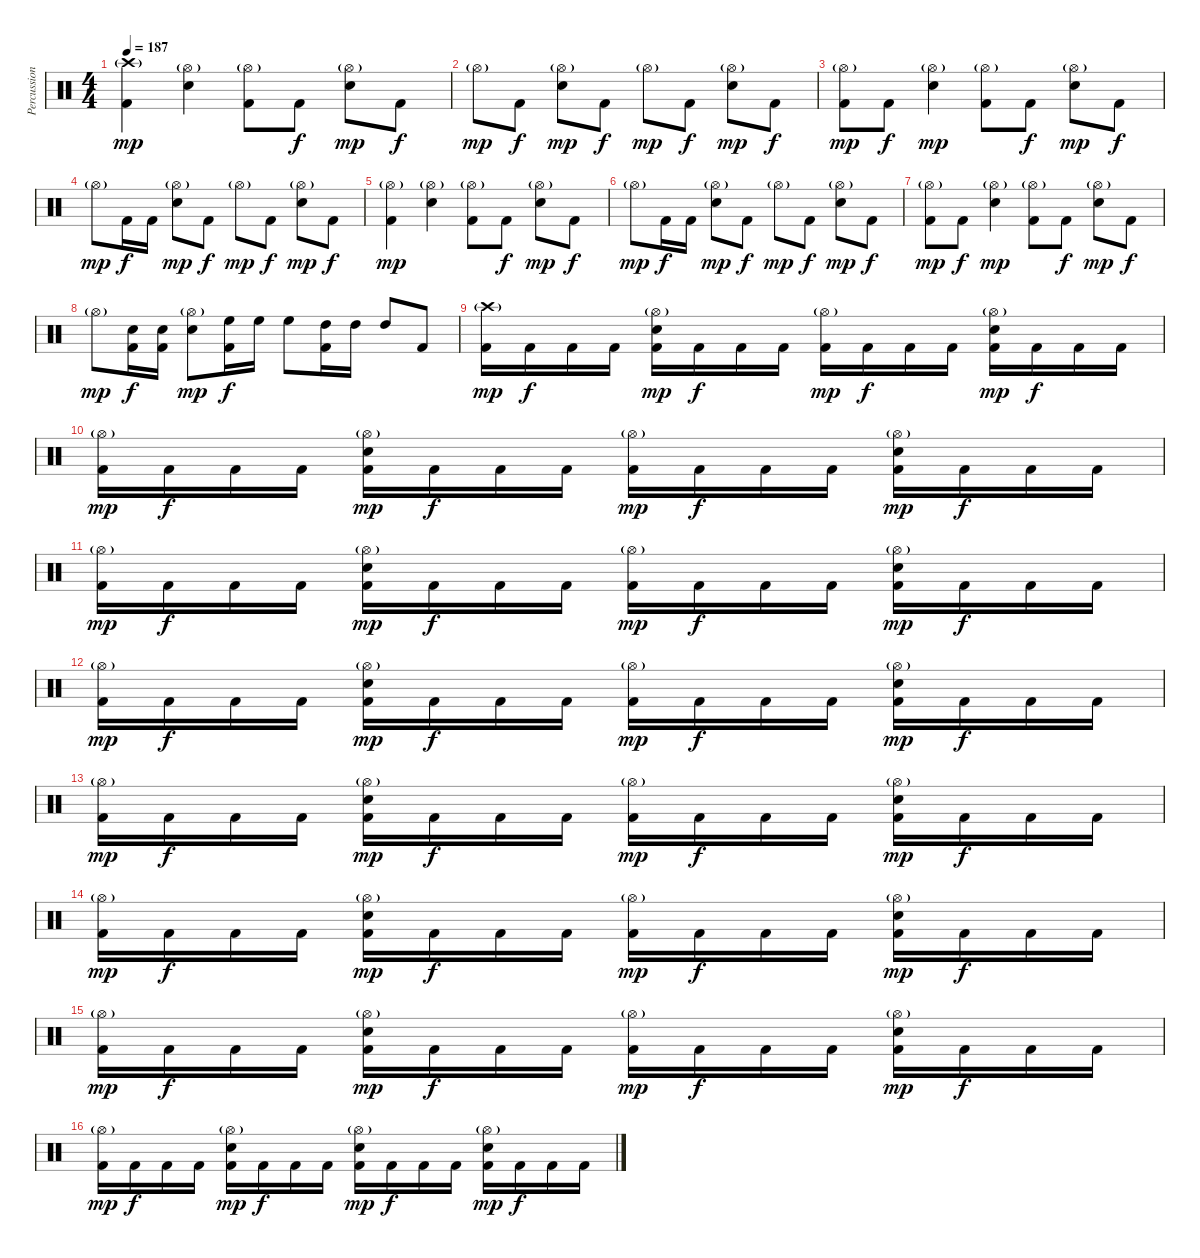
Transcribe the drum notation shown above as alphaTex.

\track ("Percussion" "Percussion") {instrument percussion}
\staff {score}
\articulation defaults
\ts (4 4)
\tempo 187
\clef neutral
\ks c
("Kick (hit) 2" "Crash high (hit)"{g}).4{dy mp} ("Snare (hit) 2" "Hi-Hat (open)"{g}).4 ("Kick (hit) 2" "Hi-Hat (open)"{g}).8 "Kick (hit) 2".8{dy f} ("Snare (hit) 2" "Hi-Hat (open)"{g}).8{dy mp} "Kick (hit) 2".8{dy f} |
"Hi-Hat (open)"{g}.8{dy mp} "Kick (hit) 2".8{dy f} ("Snare (hit) 2" "Hi-Hat (open)"{g}).8{dy mp} "Kick (hit) 2".8{dy f} "Hi-Hat (open)"{g}.8{dy mp} "Kick (hit) 2".8{dy f} ("Snare (hit) 2" "Hi-Hat (open)"{g}).8{dy mp} "Kick (hit) 2".8{dy f} |
("Kick (hit) 2" "Hi-Hat (open)"{g}).8{dy mp} "Kick (hit) 2".8{dy f} ("Snare (hit) 2" "Hi-Hat (open)"{g}).4{dy mp} ("Kick (hit) 2" "Hi-Hat (open)"{g}).8 "Kick (hit) 2".8{dy f} ("Snare (hit) 2" "Hi-Hat (open)"{g}).8{dy mp} "Kick (hit) 2".8{dy f} |
"Hi-Hat (open)"{g}.8{dy mp} "Kick (hit) 2".16{dy f} "Kick (hit) 2".16 ("Snare (hit) 2" "Hi-Hat (open)"{g}).8{dy mp} "Kick (hit) 2".8{dy f} "Hi-Hat (open)"{g}.8{dy mp} "Kick (hit) 2".8{dy f} ("Snare (hit) 2" "Hi-Hat (open)"{g}).8{dy mp} "Kick (hit) 2".8{dy f} |
("Kick (hit) 2" "Hi-Hat (open)"{g}).4{dy mp} ("Snare (hit) 2" "Hi-Hat (open)"{g}).4 ("Kick (hit) 2" "Hi-Hat (open)"{g}).8 "Kick (hit) 2".8{dy f} ("Snare (hit) 2" "Hi-Hat (open)"{g}).8{dy mp} "Kick (hit) 2".8{dy f} |
"Hi-Hat (open)"{g}.8{dy mp} "Kick (hit) 2".16{dy f} "Kick (hit) 2".16 ("Snare (hit) 2" "Hi-Hat (open)"{g}).8{dy mp} "Kick (hit) 2".8{dy f} "Hi-Hat (open)"{g}.8{dy mp} "Kick (hit) 2".8{dy f} ("Snare (hit) 2" "Hi-Hat (open)"{g}).8{dy mp} "Kick (hit) 2".8{dy f} |
("Kick (hit) 2" "Hi-Hat (open)"{g}).8{dy mp} "Kick (hit) 2".8{dy f} ("Snare (hit) 2" "Hi-Hat (open)"{g}).4{dy mp} ("Kick (hit) 2" "Hi-Hat (open)"{g}).8 "Kick (hit) 2".8{dy f} ("Snare (hit) 2" "Hi-Hat (open)"{g}).8{dy mp} "Kick (hit) 2".8{dy f} |
"Hi-Hat (open)"{g}.8{dy mp} ("Snare (hit) 2" "Kick (hit) 2").16{dy f} ("Kick (hit) 2" "Snare (hit) 2").16 ("Snare (hit) 2" "Hi-Hat (open)"{g}).8{dy mp} ("Kick (hit) 2" "High Floor Tom (hit)").16{dy f} "High Floor Tom (hit)".16 "High Floor Tom (hit)".8 ("Kick (hit) 2" "High Tom (hit)").16 "High Tom (hit)".16 "High Tom (hit)".8 "Kick (hit) 2".8 |
("Kick (hit) 2" "Crash high (hit)"{g}).16{dy mp} "Kick (hit) 2".16{dy f} "Kick (hit) 2".16 "Kick (hit) 2".16 ("Kick (hit) 2" "Snare (hit) 2" "Hi-Hat (open)"{g}).16{dy mp} "Kick (hit) 2".16{dy f} "Kick (hit) 2".16 "Kick (hit) 2".16 ("Kick (hit) 2" "Hi-Hat (open)"{g}).16{dy mp} "Kick (hit) 2".16{dy f} "Kick (hit) 2".16 "Kick (hit) 2".16 ("Kick (hit) 2" "Snare (hit) 2" "Hi-Hat (open)"{g}).16{dy mp} "Kick (hit) 2".16{dy f} "Kick (hit) 2".16 "Kick (hit) 2".16 |
("Kick (hit) 2" "Hi-Hat (open)"{g}).16{dy mp} "Kick (hit) 2".16{dy f} "Kick (hit) 2".16 "Kick (hit) 2".16 ("Kick (hit) 2" "Snare (hit) 2" "Hi-Hat (open)"{g}).16{dy mp} "Kick (hit) 2".16{dy f} "Kick (hit) 2".16 "Kick (hit) 2".16 ("Kick (hit) 2" "Hi-Hat (open)"{g}).16{dy mp} "Kick (hit) 2".16{dy f} "Kick (hit) 2".16 "Kick (hit) 2".16 ("Kick (hit) 2" "Snare (hit) 2" "Hi-Hat (open)"{g}).16{dy mp} "Kick (hit) 2".16{dy f} "Kick (hit) 2".16 "Kick (hit) 2".16 |
("Kick (hit) 2" "Hi-Hat (open)"{g}).16{dy mp} "Kick (hit) 2".16{dy f} "Kick (hit) 2".16 "Kick (hit) 2".16 ("Kick (hit) 2" "Snare (hit) 2" "Hi-Hat (open)"{g}).16{dy mp} "Kick (hit) 2".16{dy f} "Kick (hit) 2".16 "Kick (hit) 2".16 ("Kick (hit) 2" "Hi-Hat (open)"{g}).16{dy mp} "Kick (hit) 2".16{dy f} "Kick (hit) 2".16 "Kick (hit) 2".16 ("Kick (hit) 2" "Snare (hit) 2" "Hi-Hat (open)"{g}).16{dy mp} "Kick (hit) 2".16{dy f} "Kick (hit) 2".16 "Kick (hit) 2".16 |
("Kick (hit) 2" "Hi-Hat (open)"{g}).16{dy mp} "Kick (hit) 2".16{dy f} "Kick (hit) 2".16 "Kick (hit) 2".16 ("Kick (hit) 2" "Snare (hit) 2" "Hi-Hat (open)"{g}).16{dy mp} "Kick (hit) 2".16{dy f} "Kick (hit) 2".16 "Kick (hit) 2".16 ("Kick (hit) 2" "Hi-Hat (open)"{g}).16{dy mp} "Kick (hit) 2".16{dy f} "Kick (hit) 2".16 "Kick (hit) 2".16 ("Kick (hit) 2" "Snare (hit) 2" "Hi-Hat (open)"{g}).16{dy mp} "Kick (hit) 2".16{dy f} "Kick (hit) 2".16 "Kick (hit) 2".16 |
("Kick (hit) 2" "Hi-Hat (open)"{g}).16{dy mp} "Kick (hit) 2".16{dy f} "Kick (hit) 2".16 "Kick (hit) 2".16 ("Kick (hit) 2" "Snare (hit) 2" "Hi-Hat (open)"{g}).16{dy mp} "Kick (hit) 2".16{dy f} "Kick (hit) 2".16 "Kick (hit) 2".16 ("Kick (hit) 2" "Hi-Hat (open)"{g}).16{dy mp} "Kick (hit) 2".16{dy f} "Kick (hit) 2".16 "Kick (hit) 2".16 ("Kick (hit) 2" "Snare (hit) 2" "Hi-Hat (open)"{g}).16{dy mp} "Kick (hit) 2".16{dy f} "Kick (hit) 2".16 "Kick (hit) 2".16 |
("Kick (hit) 2" "Hi-Hat (open)"{g}).16{dy mp} "Kick (hit) 2".16{dy f} "Kick (hit) 2".16 "Kick (hit) 2".16 ("Kick (hit) 2" "Snare (hit) 2" "Hi-Hat (open)"{g}).16{dy mp} "Kick (hit) 2".16{dy f} "Kick (hit) 2".16 "Kick (hit) 2".16 ("Kick (hit) 2" "Hi-Hat (open)"{g}).16{dy mp} "Kick (hit) 2".16{dy f} "Kick (hit) 2".16 "Kick (hit) 2".16 ("Kick (hit) 2" "Snare (hit) 2" "Hi-Hat (open)"{g}).16{dy mp} "Kick (hit) 2".16{dy f} "Kick (hit) 2".16 "Kick (hit) 2".16 |
("Kick (hit) 2" "Hi-Hat (open)"{g}).16{dy mp} "Kick (hit) 2".16{dy f} "Kick (hit) 2".16 "Kick (hit) 2".16 ("Kick (hit) 2" "Snare (hit) 2" "Hi-Hat (open)"{g}).16{dy mp} "Kick (hit) 2".16{dy f} "Kick (hit) 2".16 "Kick (hit) 2".16 ("Kick (hit) 2" "Hi-Hat (open)"{g}).16{dy mp} "Kick (hit) 2".16{dy f} "Kick (hit) 2".16 "Kick (hit) 2".16 ("Kick (hit) 2" "Snare (hit) 2" "Hi-Hat (open)"{g}).16{dy mp} "Kick (hit) 2".16{dy f} "Kick (hit) 2".16 "Kick (hit) 2".16 |
("Kick (hit) 2" "Hi-Hat (open)"{g}).16{dy mp} "Kick (hit) 2".16{dy f} "Kick (hit) 2".16 "Kick (hit) 2".16 ("Kick (hit) 2" "Snare (hit) 2" "Hi-Hat (open)"{g}).16{dy mp} "Kick (hit) 2".16{dy f} "Kick (hit) 2".16 "Kick (hit) 2".16 ("Kick (hit) 2" "Hi-Hat (open)"{g} "Snare (hit) 2").16{dy mp} "Kick (hit) 2".16{dy f} "Kick (hit) 2".16 "Kick (hit) 2".16 ("Kick (hit) 2" "Snare (hit) 2" "Hi-Hat (open)"{g}).16{dy mp} "Kick (hit) 2".16{dy f} "Kick (hit) 2".16 "Kick (hit) 2".16
